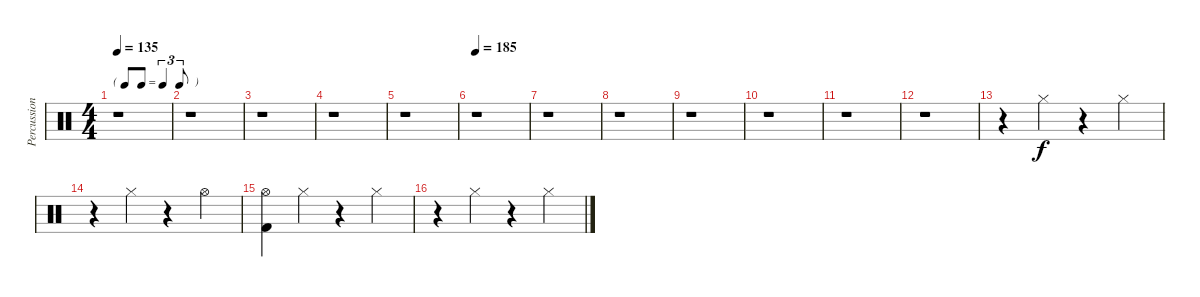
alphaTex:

\track ("Percussion" "Percussion") {instrument percussion}
\staff {score}
\articulation defaults
\ts (4 4)
\tf triplet8th
\tempo 135
\clef neutral
\ks c
r.1{dy f} |
r.1 |
r.1 |
r.1 |
r.1 |
\tempo 185
r.1 |
r.1 |
r.1 |
r.1 |
r.1 |
r.1 |
r.1 |
r.4 "Hi-Hat (closed)".4 r.4 "Hi-Hat (closed)".4 |
r.4 "Hi-Hat (closed)".4 r.4 "Hi-Hat (open)".4 |
("Kick (hit) 2" "Hi-Hat (open)").4 "Hi-Hat (closed)".4 r.4 "Hi-Hat (closed)".4 |
r.4 "Hi-Hat (closed)".4 r.4 "Hi-Hat (closed)".4
